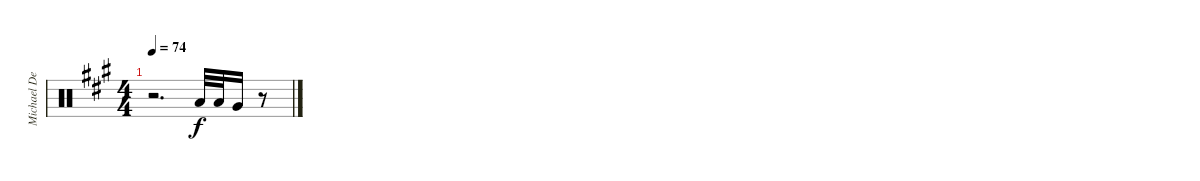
\track ("Michael Derosier Drums" "Michael De") {instrument percussion}
\staff {score}
\articulation defaults
\ts (4 4)
\tempo 74
\clef neutral
\ks a
r.2{d dy f} "Low Tom (hit)".32 "Low Tom (hit)".32 "Very Low Tom (hit)".16 r.8
